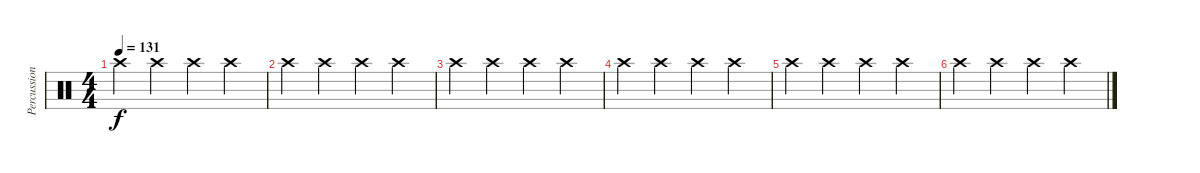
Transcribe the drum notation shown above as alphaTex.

\track ("Percussions" "Percussion") {instrument percussion}
\staff {score}
\articulation defaults
\ts (4 4)
\tempo 131
\clef neutral
\ks c "Crash high (hit)".4{dy f} "Crash high (hit)".4 "Crash high (hit)".4 "Crash high (hit)".4
|
"Crash high (hit)".4 "Crash high (hit)".4 "Crash high (hit)".4 "Crash high (hit)".4 |
"Crash high (hit)".4 "Crash high (hit)".4 "Crash high (hit)".4 "Crash high (hit)".4 |
"Crash high (hit)".4 "Crash high (hit)".4 "Crash high (hit)".4 "Crash high (hit)".4 |
"Crash high (hit)".4 "Crash high (hit)".4 "Crash high (hit)".4 "Crash high (hit)".4 |
"Crash high (hit)".4 "Crash high (hit)".4 "Crash high (hit)".4 "Crash high (hit)".4
